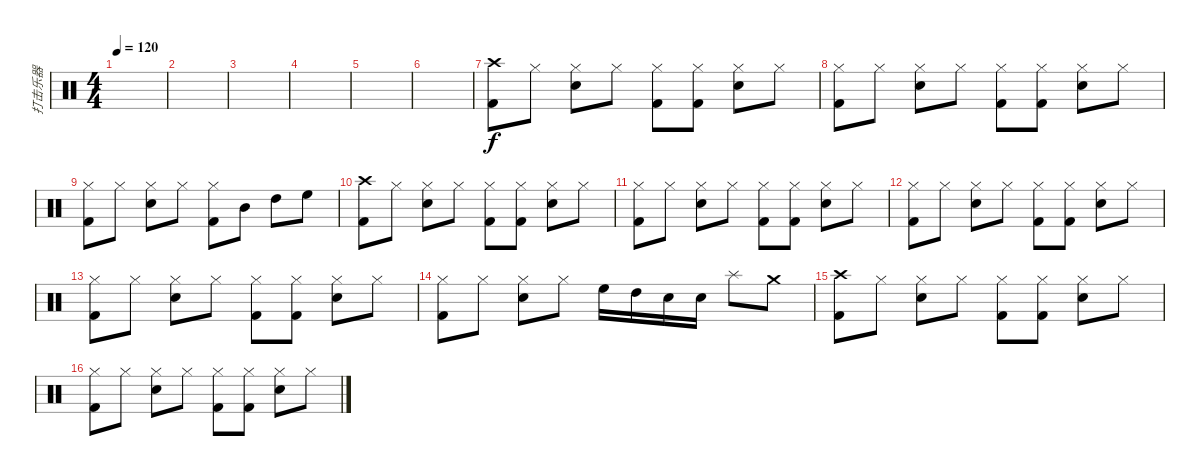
\track ("打击乐器" "打击乐器") {instrument percussion}
\staff {score}
\articulation defaults
\ts (4 4)
\tempo 120
\clef neutral
\ks c
|
|
|
|
|
|
("Crash high (hit)" "Kick (hit) 2").8 "Hi-Hat (closed)".8 ("Hi-Hat (closed)" "Electric Snare (hit)").8 "Hi-Hat (closed)".8 ("Hi-Hat (closed)" "Kick (hit) 2").8 ("Hi-Hat (closed)" "Kick (hit) 2").8 ("Hi-Hat (closed)" "Electric Snare (hit)").8 "Hi-Hat (closed)".8 |
("Hi-Hat (closed)" "Kick (hit) 2").8 "Hi-Hat (closed)".8 ("Hi-Hat (closed)" "Electric Snare (hit)").8 "Hi-Hat (closed)".8 ("Hi-Hat (closed)" "Kick (hit) 2").8 ("Hi-Hat (closed)" "Kick (hit) 2").8 ("Hi-Hat (closed)" "Electric Snare (hit)").8 "Hi-Hat (closed)".8 |
("Hi-Hat (closed)" "Kick (hit) 2").8 "Hi-Hat (closed)".8 ("Hi-Hat (closed)" "Electric Snare (hit)").8 "Hi-Hat (closed)".8 ("Hi-Hat (closed)" "Kick (hit) 2").8 "Mid Tom (hit)".8 "High Tom (hit)".8 "High Floor Tom (hit)".8 |
("Crash high (hit)" "Kick (hit) 2").8 "Hi-Hat (closed)".8 ("Hi-Hat (closed)" "Electric Snare (hit)").8 "Hi-Hat (closed)".8 ("Hi-Hat (closed)" "Kick (hit) 2").8 ("Hi-Hat (closed)" "Kick (hit) 2").8 ("Hi-Hat (closed)" "Electric Snare (hit)").8 "Hi-Hat (closed)".8 |
("Hi-Hat (closed)" "Kick (hit) 2").8 "Hi-Hat (closed)".8 ("Hi-Hat (closed)" "Electric Snare (hit)").8 "Hi-Hat (closed)".8 ("Hi-Hat (closed)" "Kick (hit) 2").8 ("Hi-Hat (closed)" "Kick (hit) 2").8 ("Hi-Hat (closed)" "Electric Snare (hit)").8 "Hi-Hat (closed)".8 |
("Hi-Hat (closed)" "Kick (hit) 2").8 "Hi-Hat (closed)".8 ("Hi-Hat (closed)" "Electric Snare (hit)").8 "Hi-Hat (closed)".8 ("Hi-Hat (closed)" "Kick (hit) 2").8 ("Hi-Hat (closed)" "Kick (hit) 2").8 ("Hi-Hat (closed)" "Electric Snare (hit)").8 "Hi-Hat (closed)".8 |
("Hi-Hat (closed)" "Kick (hit) 2").8 "Hi-Hat (closed)".8 ("Hi-Hat (closed)" "Electric Snare (hit)").8 "Hi-Hat (closed)".8 ("Hi-Hat (closed)" "Kick (hit) 2").8 ("Hi-Hat (closed)" "Kick (hit) 2").8 ("Hi-Hat (closed)" "Electric Snare (hit)").8 "Hi-Hat (closed)".8 |
("Hi-Hat (closed)" "Kick (hit) 2").8 "Hi-Hat (closed)".8 ("Hi-Hat (closed)" "Electric Snare (hit)").8 "Hi-Hat (closed)".8 "High Floor Tom (hit)".16 "High Tom (hit)".16 "Electric Snare (hit)".16 "Electric Snare (hit)".16 "Splash (hit)".8 "Crash medium (hit)".8 |
("Crash high (hit)" "Kick (hit) 2").8 "Hi-Hat (closed)".8 ("Hi-Hat (closed)" "Electric Snare (hit)").8 "Hi-Hat (closed)".8 ("Hi-Hat (closed)" "Kick (hit) 2").8 ("Hi-Hat (closed)" "Kick (hit) 2").8 ("Hi-Hat (closed)" "Electric Snare (hit)").8 "Hi-Hat (closed)".8 |
("Hi-Hat (closed)" "Kick (hit) 2").8 "Hi-Hat (closed)".8 ("Hi-Hat (closed)" "Electric Snare (hit)").8 "Hi-Hat (closed)".8 ("Hi-Hat (closed)" "Kick (hit) 2").8 ("Hi-Hat (closed)" "Kick (hit) 2").8 ("Hi-Hat (closed)" "Electric Snare (hit)").8 "Hi-Hat (closed)".8
